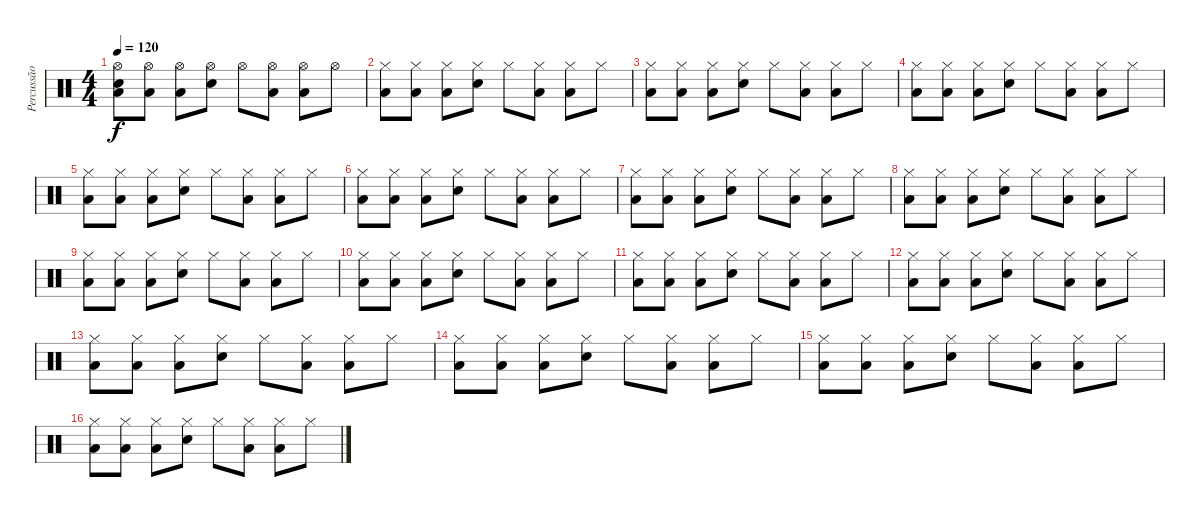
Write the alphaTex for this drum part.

\track ("Percussão" "Percussão") {instrument percussion}
\staff {score}
\articulation defaults
\ts (4 4)
\tempo 120
\clef neutral
\ks c
("Snare (hit) 2" "Low Tom (hit)" "Hi-Hat (open)").8{dy f} ("Low Floor Tom (hit)" "Hi-Hat (open)").8 ("Low Floor Tom (hit)" "Hi-Hat (open)").8 ("Snare (hit) 2" "Hi-Hat (open)").8 "Hi-Hat (open)".8 ("Low Floor Tom (hit)" "Hi-Hat (open)").8 ("Low Floor Tom (hit)" "Hi-Hat (open)").8 "Hi-Hat (open)".8 |
("Low Floor Tom (hit)" "Hi-Hat (closed)").8 ("Low Floor Tom (hit)" "Hi-Hat (closed)").8 ("Low Floor Tom (hit)" "Hi-Hat (closed)").8 ("Snare (hit) 2" "Hi-Hat (closed)").8 "Hi-Hat (closed)".8 ("Low Floor Tom (hit)" "Hi-Hat (closed)").8 ("Low Floor Tom (hit)" "Hi-Hat (closed)").8 "Hi-Hat (closed)".8 |
("Low Floor Tom (hit)" "Hi-Hat (closed)").8 ("Low Floor Tom (hit)" "Hi-Hat (closed)").8 ("Low Floor Tom (hit)" "Hi-Hat (closed)").8 ("Snare (hit) 2" "Hi-Hat (closed)").8 "Hi-Hat (closed)".8 ("Low Floor Tom (hit)" "Hi-Hat (closed)").8 ("Low Floor Tom (hit)" "Hi-Hat (closed)").8 "Hi-Hat (closed)".8 |
("Low Floor Tom (hit)" "Hi-Hat (closed)").8 ("Low Floor Tom (hit)" "Hi-Hat (closed)").8 ("Low Floor Tom (hit)" "Hi-Hat (closed)").8 ("Snare (hit) 2" "Hi-Hat (closed)").8 "Hi-Hat (closed)".8 ("Low Floor Tom (hit)" "Hi-Hat (closed)").8 ("Low Floor Tom (hit)" "Hi-Hat (closed)").8 "Hi-Hat (closed)".8 |
("Low Floor Tom (hit)" "Hi-Hat (closed)").8 ("Low Floor Tom (hit)" "Hi-Hat (closed)").8 ("Low Floor Tom (hit)" "Hi-Hat (closed)").8 ("Snare (hit) 2" "Hi-Hat (closed)").8 "Hi-Hat (closed)".8 ("Low Floor Tom (hit)" "Hi-Hat (closed)").8 ("Low Floor Tom (hit)" "Hi-Hat (closed)").8 "Hi-Hat (closed)".8 |
("Low Floor Tom (hit)" "Hi-Hat (closed)").8 ("Low Floor Tom (hit)" "Hi-Hat (closed)").8 ("Low Floor Tom (hit)" "Hi-Hat (closed)").8 ("Snare (hit) 2" "Hi-Hat (closed)").8 "Hi-Hat (closed)".8 ("Low Floor Tom (hit)" "Hi-Hat (closed)").8 ("Low Floor Tom (hit)" "Hi-Hat (closed)").8 "Hi-Hat (closed)".8 |
("Low Floor Tom (hit)" "Hi-Hat (closed)").8 ("Low Floor Tom (hit)" "Hi-Hat (closed)").8 ("Low Floor Tom (hit)" "Hi-Hat (closed)").8 ("Snare (hit) 2" "Hi-Hat (closed)").8 "Hi-Hat (closed)".8 ("Low Floor Tom (hit)" "Hi-Hat (closed)").8 ("Low Floor Tom (hit)" "Hi-Hat (closed)").8 "Hi-Hat (closed)".8 |
("Low Floor Tom (hit)" "Hi-Hat (closed)").8 ("Low Floor Tom (hit)" "Hi-Hat (closed)").8 ("Low Floor Tom (hit)" "Hi-Hat (closed)").8 ("Snare (hit) 2" "Hi-Hat (closed)").8 "Hi-Hat (closed)".8 ("Low Floor Tom (hit)" "Hi-Hat (closed)").8 ("Low Floor Tom (hit)" "Hi-Hat (closed)").8 "Hi-Hat (closed)".8 |
("Low Floor Tom (hit)" "Hi-Hat (closed)").8 ("Low Floor Tom (hit)" "Hi-Hat (closed)").8 ("Low Floor Tom (hit)" "Hi-Hat (closed)").8 ("Snare (hit) 2" "Hi-Hat (closed)").8 "Hi-Hat (closed)".8 ("Low Floor Tom (hit)" "Hi-Hat (closed)").8 ("Low Floor Tom (hit)" "Hi-Hat (closed)").8 "Hi-Hat (closed)".8 |
("Low Floor Tom (hit)" "Hi-Hat (closed)").8 ("Low Floor Tom (hit)" "Hi-Hat (closed)").8 ("Low Floor Tom (hit)" "Hi-Hat (closed)").8 ("Snare (hit) 2" "Hi-Hat (closed)").8 "Hi-Hat (closed)".8 ("Low Floor Tom (hit)" "Hi-Hat (closed)").8 ("Low Floor Tom (hit)" "Hi-Hat (closed)").8 "Hi-Hat (closed)".8 |
("Low Floor Tom (hit)" "Hi-Hat (closed)").8 ("Low Floor Tom (hit)" "Hi-Hat (closed)").8 ("Low Floor Tom (hit)" "Hi-Hat (closed)").8 ("Snare (hit) 2" "Hi-Hat (closed)").8 "Hi-Hat (closed)".8 ("Low Floor Tom (hit)" "Hi-Hat (closed)").8 ("Low Floor Tom (hit)" "Hi-Hat (closed)").8 "Hi-Hat (closed)".8 |
("Low Floor Tom (hit)" "Hi-Hat (closed)").8 ("Low Floor Tom (hit)" "Hi-Hat (closed)").8 ("Low Floor Tom (hit)" "Hi-Hat (closed)").8 ("Snare (hit) 2" "Hi-Hat (closed)").8 "Hi-Hat (closed)".8 ("Low Floor Tom (hit)" "Hi-Hat (closed)").8 ("Low Floor Tom (hit)" "Hi-Hat (closed)").8 "Hi-Hat (closed)".8 |
("Low Floor Tom (hit)" "Hi-Hat (closed)").8 ("Low Floor Tom (hit)" "Hi-Hat (closed)").8 ("Low Floor Tom (hit)" "Hi-Hat (closed)").8 ("Snare (hit) 2" "Hi-Hat (closed)").8 "Hi-Hat (closed)".8 ("Low Floor Tom (hit)" "Hi-Hat (closed)").8 ("Low Floor Tom (hit)" "Hi-Hat (closed)").8 "Hi-Hat (closed)".8 |
("Low Floor Tom (hit)" "Hi-Hat (closed)").8 ("Low Floor Tom (hit)" "Hi-Hat (closed)").8 ("Low Floor Tom (hit)" "Hi-Hat (closed)").8 ("Snare (hit) 2" "Hi-Hat (closed)").8 "Hi-Hat (closed)".8 ("Low Floor Tom (hit)" "Hi-Hat (closed)").8 ("Low Floor Tom (hit)" "Hi-Hat (closed)").8 "Hi-Hat (closed)".8 |
("Low Floor Tom (hit)" "Hi-Hat (closed)").8 ("Low Floor Tom (hit)" "Hi-Hat (closed)").8 ("Low Floor Tom (hit)" "Hi-Hat (closed)").8 ("Snare (hit) 2" "Hi-Hat (closed)").8 "Hi-Hat (closed)".8 ("Low Floor Tom (hit)" "Hi-Hat (closed)").8 ("Low Floor Tom (hit)" "Hi-Hat (closed)").8 "Hi-Hat (closed)".8 |
("Low Floor Tom (hit)" "Hi-Hat (closed)").8 ("Low Floor Tom (hit)" "Hi-Hat (closed)").8 ("Low Floor Tom (hit)" "Hi-Hat (closed)").8 ("Snare (hit) 2" "Hi-Hat (closed)").8 "Hi-Hat (closed)".8 ("Low Floor Tom (hit)" "Hi-Hat (closed)").8 ("Low Floor Tom (hit)" "Hi-Hat (closed)").8 "Hi-Hat (closed)".8
